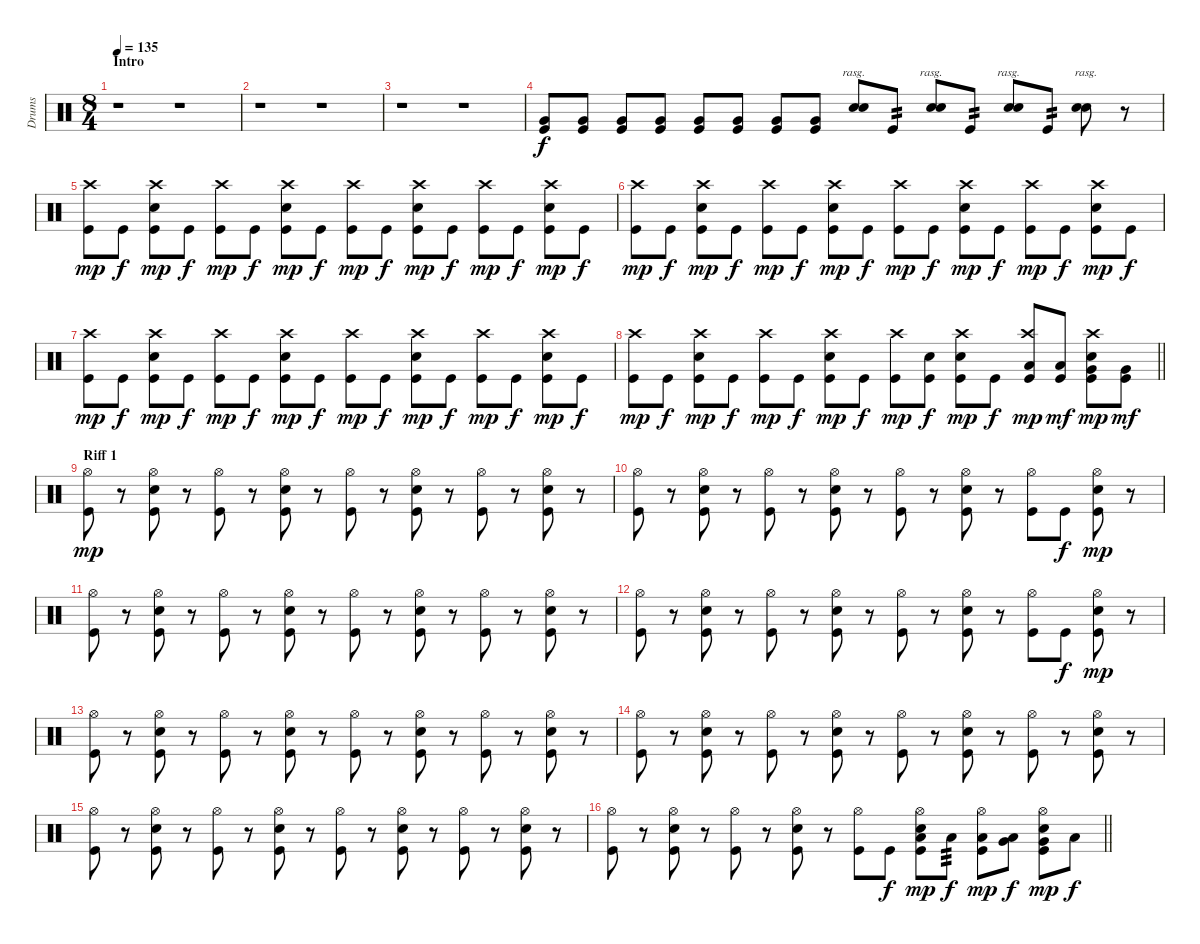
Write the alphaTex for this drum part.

\track ("Drums" "Drums") {instrument percussion}
\staff {score}
\articulation defaults
\ts (8 4)
\section ("" "Intro")
\tempo 135
\clef neutral
\ks c
r.1{dy f} r.1 |
r.1 r.1 |
r.1 r.1 |
("Very Low Tom (hit)" "Kick (hit)").8 ("Very Low Tom (hit)" "Kick (hit)").8 ("Very Low Tom (hit)" "Kick (hit)").8 ("Very Low Tom (hit)" "Kick (hit)").8 ("Very Low Tom (hit)" "Kick (hit)").8 ("Very Low Tom (hit)" "Kick (hit)").8 ("Very Low Tom (hit)" "Kick (hit)").8 ("Very Low Tom (hit)" "Kick (hit)").8 ("Electric Snare (hit)" "Electric Snare (hit)").8{bd 480 rasg ii} "Kick (hit)".8{tp 2} ("Electric Snare (hit)" "Electric Snare (hit)").8{bd 480 rasg ii} "Kick (hit)".8{tp 2} ("Electric Snare (hit)" "Electric Snare (hit)").8{bd 480 rasg ii} "Kick (hit)".8{tp 2} ("Electric Snare (hit)" "Electric Snare (hit)").8{bd 480 rasg ii} r.8 |
("Crash high (hit)" "Kick (hit)").8{dy mp} "Kick (hit)".8{dy f} ("Crash high (hit)" "Electric Snare (hit)" "Kick (hit)").8{dy mp} "Kick (hit)".8{dy f} ("Crash high (hit)" "Kick (hit)").8{dy mp} "Kick (hit)".8{dy f} ("Crash high (hit)" "Electric Snare (hit)" "Kick (hit)").8{dy mp} "Kick (hit)".8{dy f} ("Crash high (hit)" "Kick (hit)").8{dy mp} "Kick (hit)".8{dy f} ("Crash high (hit)" "Electric Snare (hit)" "Kick (hit)").8{dy mp} "Kick (hit)".8{dy f} ("Crash high (hit)" "Kick (hit)").8{dy mp} "Kick (hit)".8{dy f} ("Crash high (hit)" "Electric Snare (hit)" "Kick (hit)").8{dy mp} "Kick (hit)".8{dy f} |
("Crash high (hit)" "Kick (hit)").8{dy mp} "Kick (hit)".8{dy f} ("Crash high (hit)" "Electric Snare (hit)" "Kick (hit)").8{dy mp} "Kick (hit)".8{dy f} ("Crash high (hit)" "Kick (hit)").8{dy mp} "Kick (hit)".8{dy f} ("Crash high (hit)" "Electric Snare (hit)" "Kick (hit)").8{dy mp} "Kick (hit)".8{dy f} ("Crash high (hit)" "Kick (hit)").8{dy mp} "Kick (hit)".8{dy f} ("Crash high (hit)" "Electric Snare (hit)" "Kick (hit)").8{dy mp} "Kick (hit)".8{dy f} ("Crash high (hit)" "Kick (hit)").8{dy mp} "Kick (hit)".8{dy f} ("Crash high (hit)" "Electric Snare (hit)" "Kick (hit)").8{dy mp} "Kick (hit)".8{dy f} |
("Crash high (hit)" "Kick (hit)").8{dy mp} "Kick (hit)".8{dy f} ("Crash high (hit)" "Electric Snare (hit)" "Kick (hit)").8{dy mp} "Kick (hit)".8{dy f} ("Crash high (hit)" "Kick (hit)").8{dy mp} "Kick (hit)".8{dy f} ("Crash high (hit)" "Electric Snare (hit)" "Kick (hit)").8{dy mp} "Kick (hit)".8{dy f} ("Crash high (hit)" "Kick (hit)").8{dy mp} "Kick (hit)".8{dy f} ("Crash high (hit)" "Electric Snare (hit)" "Kick (hit)").8{dy mp} "Kick (hit)".8{dy f} ("Crash high (hit)" "Kick (hit)").8{dy mp} "Kick (hit)".8{dy f} ("Crash high (hit)" "Electric Snare (hit)" "Kick (hit)").8{dy mp} "Kick (hit)".8{dy f} |
\barLineRight lightlight
("Crash high (hit)" "Kick (hit)").8{dy mp} "Kick (hit)".8{dy f} ("Crash high (hit)" "Electric Snare (hit)" "Kick (hit)").8{dy mp} "Kick (hit)".8{dy f} ("Crash high (hit)" "Kick (hit)").8{dy mp} "Kick (hit)".8{dy f} ("Crash high (hit)" "Electric Snare (hit)" "Kick (hit)").8{dy mp} "Kick (hit)".8{dy f} ("Crash high (hit)" "Kick (hit)").8{dy mp} ("Electric Snare (hit)" "Kick (hit)").8{dy f} ("Crash high (hit)" "Electric Snare (hit)" "Kick (hit)").8{dy mp} "Kick (hit)".8{dy f} ("Crash high (hit)" "Low Tom (hit)" "Kick (hit)").8{dy mp} ("Low Tom (hit)" "Kick (hit)").8{dy mf} ("Crash high (hit)" "Very Low Tom (hit)" "Electric Snare (hit)" "Kick (hit)").8{dy mp} ("Very Low Tom (hit)" "Kick (hit)").8{dy mf} |
\section ("" "Riff 1")
("Hi-Hat (open)" "Kick (hit)").8{dy mp} r.8 ("Hi-Hat (open)" "Electric Snare (hit)" "Kick (hit)").8 r.8 ("Hi-Hat (open)" "Kick (hit)").8 r.8 ("Hi-Hat (open)" "Electric Snare (hit)" "Kick (hit)").8 r.8 ("Hi-Hat (open)" "Kick (hit)").8 r.8 ("Hi-Hat (open)" "Electric Snare (hit)" "Kick (hit)").8 r.8 ("Hi-Hat (open)" "Kick (hit)").8 r.8 ("Hi-Hat (open)" "Electric Snare (hit)" "Kick (hit)").8 r.8 |
("Hi-Hat (open)" "Kick (hit)").8 r.8 ("Hi-Hat (open)" "Electric Snare (hit)" "Kick (hit)").8 r.8 ("Hi-Hat (open)" "Kick (hit)").8 r.8 ("Hi-Hat (open)" "Electric Snare (hit)" "Kick (hit)").8 r.8 ("Hi-Hat (open)" "Kick (hit)").8 r.8 ("Hi-Hat (open)" "Electric Snare (hit)" "Kick (hit)").8 r.8 ("Hi-Hat (open)" "Kick (hit)").8 "Kick (hit)".8{dy f} ("Hi-Hat (open)" "Electric Snare (hit)" "Kick (hit)").8{dy mp} r.8 |
("Hi-Hat (open)" "Kick (hit)").8 r.8 ("Hi-Hat (open)" "Electric Snare (hit)" "Kick (hit)").8 r.8 ("Hi-Hat (open)" "Kick (hit)").8 r.8 ("Hi-Hat (open)" "Electric Snare (hit)" "Kick (hit)").8 r.8 ("Hi-Hat (open)" "Kick (hit)").8 r.8 ("Hi-Hat (open)" "Electric Snare (hit)" "Kick (hit)").8 r.8 ("Hi-Hat (open)" "Kick (hit)").8 r.8 ("Hi-Hat (open)" "Electric Snare (hit)" "Kick (hit)").8 r.8 |
("Hi-Hat (open)" "Kick (hit)").8 r.8 ("Hi-Hat (open)" "Electric Snare (hit)" "Kick (hit)").8 r.8 ("Hi-Hat (open)" "Kick (hit)").8 r.8 ("Hi-Hat (open)" "Electric Snare (hit)" "Kick (hit)").8 r.8 ("Hi-Hat (open)" "Kick (hit)").8 r.8 ("Hi-Hat (open)" "Electric Snare (hit)" "Kick (hit)").8 r.8 ("Hi-Hat (open)" "Kick (hit)").8 "Kick (hit)".8{dy f} ("Hi-Hat (open)" "Electric Snare (hit)" "Kick (hit)").8{dy mp} r.8 |
("Hi-Hat (open)" "Kick (hit)").8 r.8 ("Hi-Hat (open)" "Electric Snare (hit)" "Kick (hit)").8 r.8 ("Hi-Hat (open)" "Kick (hit)").8 r.8 ("Hi-Hat (open)" "Electric Snare (hit)" "Kick (hit)").8 r.8 ("Hi-Hat (open)" "Kick (hit)").8 r.8 ("Hi-Hat (open)" "Electric Snare (hit)" "Kick (hit)").8 r.8 ("Hi-Hat (open)" "Kick (hit)").8 r.8 ("Hi-Hat (open)" "Electric Snare (hit)" "Kick (hit)").8 r.8 |
("Hi-Hat (open)" "Kick (hit)").8 r.8 ("Hi-Hat (open)" "Electric Snare (hit)" "Kick (hit)").8 r.8 ("Hi-Hat (open)" "Kick (hit)").8 r.8 ("Hi-Hat (open)" "Electric Snare (hit)" "Kick (hit)").8 r.8 ("Hi-Hat (open)" "Kick (hit)").8 r.8 ("Hi-Hat (open)" "Electric Snare (hit)" "Kick (hit)").8 r.8 ("Hi-Hat (open)" "Kick (hit)").8 r.8 ("Hi-Hat (open)" "Electric Snare (hit)" "Kick (hit)").8 r.8 |
("Hi-Hat (open)" "Kick (hit)").8 r.8 ("Hi-Hat (open)" "Electric Snare (hit)" "Kick (hit)").8 r.8 ("Hi-Hat (open)" "Kick (hit)").8 r.8 ("Hi-Hat (open)" "Electric Snare (hit)" "Kick (hit)").8 r.8 ("Hi-Hat (open)" "Kick (hit)").8 r.8 ("Hi-Hat (open)" "Electric Snare (hit)" "Kick (hit)").8 r.8 ("Hi-Hat (open)" "Kick (hit)").8 r.8 ("Hi-Hat (open)" "Electric Snare (hit)" "Kick (hit)").8 r.8 |
\barLineRight lightlight
("Hi-Hat (open)" "Kick (hit)").8 r.8 ("Hi-Hat (open)" "Electric Snare (hit)" "Kick (hit)").8 r.8 ("Hi-Hat (open)" "Kick (hit)").8 r.8 ("Hi-Hat (open)" "Electric Snare (hit)" "Kick (hit)").8 r.8 ("Hi-Hat (open)" "Kick (hit)").8 "Kick (hit)".8{dy f} ("Hi-Hat (open)" "Low Tom (hit)" "Electric Snare (hit)" "Kick (hit)").8{dy mp} "Low Tom (hit)".8{tp 3 dy f} ("Hi-Hat (open)" "Low Tom (hit)" "Kick (hit)").8{dy mp} ("Very Low Tom (hit)" "Low Tom (hit)").8{dy f} ("Hi-Hat (open)" "Very Low Tom (hit)" "Electric Snare (hit)" "Kick (hit)").8{dy mp} "Low Floor Tom (hit)".8{dy f}
